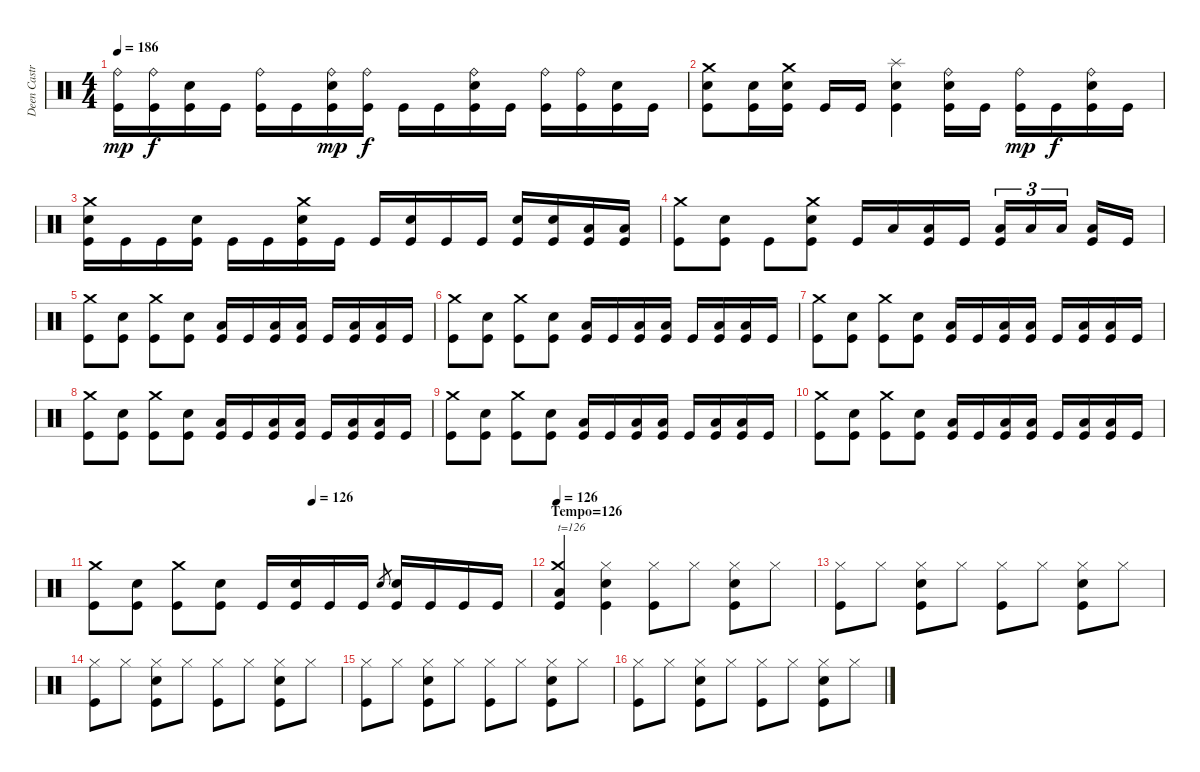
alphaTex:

\track ("Deen Castronovo" "Deen Castr") {instrument percussion}
\staff {score}
\articulation defaults
\ts (4 4)
\tempo 186
\clef neutral
\ks c
("Ride (bell)" "Kick (hit)").16{dy mp} ("Ride (bell)" "Kick (hit)").16{dy f} ("Snare (hit) 2" "Kick (hit)").16 "Kick (hit)".16 ("Ride (bell)" "Kick (hit)").16 "Kick (hit)".16 ("Ride (bell)" "Snare (hit) 2" "Kick (hit)").16{dy mp} ("Ride (bell)" "Kick (hit)").16{dy f} "Kick (hit)".16 "Kick (hit)".16 ("Ride (bell)" "Snare (hit) 2" "Kick (hit)").16 "Kick (hit)".16 ("Ride (bell)" "Kick (hit)").16 ("Ride (bell)" "Kick (hit)").16 ("Snare (hit) 2" "Kick (hit)").16 "Kick (hit)".16 |
("Crash medium (hit)" "Snare (hit) 2" "Kick (hit)").8 ("Snare (hit) 2" "Kick (hit)").16 ("Crash medium (hit)" "Snare (hit) 2" "Kick (hit)").16 "Kick (hit)".16 "Kick (hit)".16 ("Splash (hit)" "Snare (hit) 2" "Kick (hit)").4 ("Ride (bell)" "Snare (hit) 2" "Kick (hit)").16 "Kick (hit)".16 ("Ride (bell)" "Kick (hit)").16{dy mp} "Kick (hit)".16{dy f} ("Ride (bell)" "Snare (hit) 2" "Kick (hit)").16 "Kick (hit)".16 |
("Crash medium (hit)" "Snare (hit) 2" "Kick (hit)").16 "Kick (hit)".16 "Kick (hit)".16 ("Snare (hit) 2" "Kick (hit)").16 "Kick (hit)".16 "Kick (hit)".16 ("Crash medium (hit)" "Snare (hit) 2" "Kick (hit)").16 "Kick (hit)".16 "Kick (hit)".16 ("Snare (hit) 2" "Kick (hit)").16 "Kick (hit)".16 "Kick (hit)".16 ("Snare (hit) 2" "Kick (hit)").16 ("Snare (hit) 2" "Kick (hit)").16 ("Low Tom (hit)" "Kick (hit)").16 ("Low Tom (hit)" "Kick (hit)").16 |
("Crash medium (hit)" "Kick (hit)").8 ("Snare (hit) 2" "Kick (hit)").8 "Kick (hit)".8 ("Crash medium (hit)" "Snare (hit) 2" "Kick (hit)").8 "Kick (hit)".16 "Low Tom (hit)".16 ("Low Tom (hit)" "Kick (hit)").16 "Kick (hit)".16 ("Low Tom (hit)" "Kick (hit)").16{tu (3 2)} "Low Tom (hit)".16{tu (3 2)} "Low Tom (hit)".16{tu (3 2)} ("Low Tom (hit)" "Kick (hit)").16 "Kick (hit)".16 |
("Crash medium (hit)" "Kick (hit)").8 ("Snare (hit) 2" "Kick (hit)").8 ("Crash medium (hit)" "Kick (hit)").8 ("Snare (hit) 2" "Kick (hit)").8 ("Low Tom (hit)" "Kick (hit)").16 "Kick (hit)".16 ("Low Tom (hit)" "Kick (hit)").16 ("Low Tom (hit)" "Kick (hit)").16 "Kick (hit)".16 ("Low Tom (hit)" "Kick (hit)").16 ("Low Tom (hit)" "Kick (hit)").16 "Kick (hit)".16 |
("Crash medium (hit)" "Kick (hit)").8 ("Snare (hit) 2" "Kick (hit)").8 ("Crash medium (hit)" "Kick (hit)").8 ("Snare (hit) 2" "Kick (hit)").8 ("Low Tom (hit)" "Kick (hit)").16 "Kick (hit)".16 ("Low Tom (hit)" "Kick (hit)").16 ("Low Tom (hit)" "Kick (hit)").16 "Kick (hit)".16 ("Low Tom (hit)" "Kick (hit)").16 ("Low Tom (hit)" "Kick (hit)").16 "Kick (hit)".16 |
("Crash medium (hit)" "Kick (hit)").8 ("Snare (hit) 2" "Kick (hit)").8 ("Crash medium (hit)" "Kick (hit)").8 ("Snare (hit) 2" "Kick (hit)").8 ("Low Tom (hit)" "Kick (hit)").16 "Kick (hit)".16 ("Low Tom (hit)" "Kick (hit)").16 ("Low Tom (hit)" "Kick (hit)").16 "Kick (hit)".16 ("Low Tom (hit)" "Kick (hit)").16 ("Low Tom (hit)" "Kick (hit)").16 "Kick (hit)".16 |
("Crash medium (hit)" "Kick (hit)").8 ("Snare (hit) 2" "Kick (hit)").8 ("Crash medium (hit)" "Kick (hit)").8 ("Snare (hit) 2" "Kick (hit)").8 ("Low Tom (hit)" "Kick (hit)").16 "Kick (hit)".16 ("Low Tom (hit)" "Kick (hit)").16 ("Low Tom (hit)" "Kick (hit)").16 "Kick (hit)".16 ("Low Tom (hit)" "Kick (hit)").16 ("Low Tom (hit)" "Kick (hit)").16 "Kick (hit)".16 |
("Crash medium (hit)" "Kick (hit)").8 ("Snare (hit) 2" "Kick (hit)").8 ("Crash medium (hit)" "Kick (hit)").8 ("Snare (hit) 2" "Kick (hit)").8 ("Low Tom (hit)" "Kick (hit)").16 "Kick (hit)".16 ("Low Tom (hit)" "Kick (hit)").16 ("Low Tom (hit)" "Kick (hit)").16 "Kick (hit)".16 ("Low Tom (hit)" "Kick (hit)").16 ("Low Tom (hit)" "Kick (hit)").16 "Kick (hit)".16 |
("Crash medium (hit)" "Kick (hit)").8 ("Snare (hit) 2" "Kick (hit)").8 ("Crash medium (hit)" "Kick (hit)").8 ("Snare (hit) 2" "Kick (hit)").8 ("Low Tom (hit)" "Kick (hit)").16 "Kick (hit)".16 ("Low Tom (hit)" "Kick (hit)").16 ("Low Tom (hit)" "Kick (hit)").16 "Kick (hit)".16 ("Low Tom (hit)" "Kick (hit)").16 ("Low Tom (hit)" "Kick (hit)").16 "Kick (hit)".16 |
\tempo (126 0.5)
("Crash medium (hit)" "Kick (hit)").8 ("Snare (hit) 2" "Kick (hit)").8 ("Crash medium (hit)" "Kick (hit)").8 ("Snare (hit) 2" "Kick (hit)").8 "Kick (hit)".16 ("Snare (hit) 2" "Kick (hit)").16 "Kick (hit)".16 "Kick (hit)".16 "Snare (hit) 2".8{gr} ("Snare (hit) 2" "Kick (hit)").16 "Kick (hit)".16 "Kick (hit)".16 "Kick (hit)".16 |
\section ("" "Tempo=126")
\tempo 126
("Crash medium (hit)" "Low Tom (hit)" "Kick (hit)").4{txt "t=126"} ("Hi-Hat (closed)" "Snare (hit) 2" "Kick (hit)").4 ("Hi-Hat (closed)" "Kick (hit)").8 "Hi-Hat (closed)".8 ("Hi-Hat (closed)" "Snare (hit) 2" "Kick (hit)").8 "Hi-Hat (closed)".8 |
("Hi-Hat (closed)" "Kick (hit)").8 "Hi-Hat (closed)".8 ("Hi-Hat (closed)" "Snare (hit) 2" "Kick (hit)").8 "Hi-Hat (closed)".8 ("Hi-Hat (closed)" "Kick (hit)").8 "Hi-Hat (closed)".8 ("Hi-Hat (closed)" "Snare (hit) 2" "Kick (hit)").8 "Hi-Hat (closed)".8 |
("Hi-Hat (closed)" "Kick (hit)").8 "Hi-Hat (closed)".8 ("Hi-Hat (closed)" "Snare (hit) 2" "Kick (hit)").8 "Hi-Hat (closed)".8 ("Hi-Hat (closed)" "Kick (hit)").8 "Hi-Hat (closed)".8 ("Hi-Hat (closed)" "Snare (hit) 2" "Kick (hit)").8 "Hi-Hat (closed)".8 |
("Hi-Hat (closed)" "Kick (hit)").8 "Hi-Hat (closed)".8 ("Hi-Hat (closed)" "Snare (hit) 2" "Kick (hit)").8 "Hi-Hat (closed)".8 ("Hi-Hat (closed)" "Kick (hit)").8 "Hi-Hat (closed)".8 ("Hi-Hat (closed)" "Snare (hit) 2" "Kick (hit)").8 "Hi-Hat (closed)".8 |
("Hi-Hat (closed)" "Kick (hit)").8 "Hi-Hat (closed)".8 ("Hi-Hat (closed)" "Snare (hit) 2" "Kick (hit)").8 "Hi-Hat (closed)".8 ("Hi-Hat (closed)" "Kick (hit)").8 "Hi-Hat (closed)".8 ("Hi-Hat (closed)" "Snare (hit) 2" "Kick (hit)").8 "Hi-Hat (closed)".8
